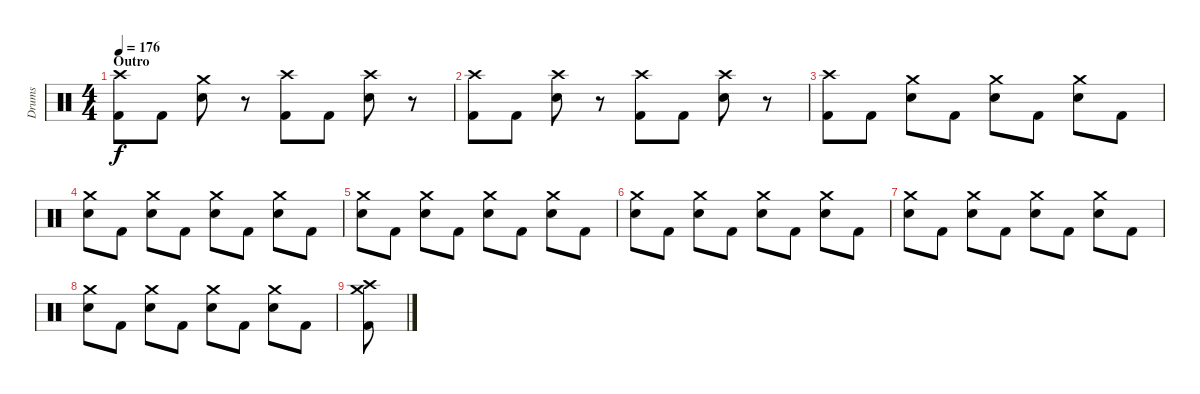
\track ("Drums" "Drums") {instrument percussion}
\staff {score}
\articulation defaults
\ts (4 4)
\section ("" "Outro")
\tempo 176
\clef neutral
\ks c
("Crash high (hit)" "Kick (hit) 2").8{dy f} "Kick (hit) 2".8 ("Crash medium (hit)" "Electric Snare (hit)").8 r.8 ("Crash high (hit)" "Kick (hit) 2").8 "Kick (hit) 2".8 ("Crash high (hit)" "Electric Snare (hit)").8 r.8 |
("Crash high (hit)" "Kick (hit) 2").8 "Kick (hit) 2".8 ("Crash high (hit)" "Electric Snare (hit)").8 r.8 ("Crash high (hit)" "Kick (hit) 2").8 "Kick (hit) 2".8 ("Crash high (hit)" "Electric Snare (hit)").8 r.8 |
("Crash high (hit)" "Kick (hit) 2").8 "Kick (hit) 2".8 ("Crash medium (hit)" "Electric Snare (hit)").8 "Kick (hit) 2".8 ("Crash medium (hit)" "Electric Snare (hit)").8 "Kick (hit) 2".8 ("Crash medium (hit)" "Electric Snare (hit)").8 "Kick (hit) 2".8 |
("Crash medium (hit)" "Electric Snare (hit)").8 "Kick (hit) 2".8 ("Crash medium (hit)" "Electric Snare (hit)").8 "Kick (hit) 2".8 ("Crash medium (hit)" "Electric Snare (hit)").8 "Kick (hit) 2".8 ("Crash medium (hit)" "Electric Snare (hit)").8 "Kick (hit) 2".8 |
("Crash medium (hit)" "Electric Snare (hit)").8 "Kick (hit) 2".8 ("Crash medium (hit)" "Electric Snare (hit)").8 "Kick (hit) 2".8 ("Crash medium (hit)" "Electric Snare (hit)").8 "Kick (hit) 2".8 ("Crash medium (hit)" "Electric Snare (hit)").8 "Kick (hit) 2".8 |
("Crash medium (hit)" "Electric Snare (hit)").8 "Kick (hit) 2".8 ("Crash medium (hit)" "Electric Snare (hit)").8 "Kick (hit) 2".8 ("Crash medium (hit)" "Electric Snare (hit)").8 "Kick (hit) 2".8 ("Crash medium (hit)" "Electric Snare (hit)").8 "Kick (hit) 2".8 |
("Crash medium (hit)" "Electric Snare (hit)").8 "Kick (hit) 2".8 ("Crash medium (hit)" "Electric Snare (hit)").8 "Kick (hit) 2".8 ("Crash medium (hit)" "Electric Snare (hit)").8 "Kick (hit) 2".8 ("Crash medium (hit)" "Electric Snare (hit)").8 "Kick (hit) 2".8 |
("Crash medium (hit)" "Electric Snare (hit)").8 "Kick (hit) 2".8 ("Crash medium (hit)" "Electric Snare (hit)").8 "Kick (hit) 2".8 ("Crash medium (hit)" "Electric Snare (hit)").8 "Kick (hit) 2".8 ("Crash medium (hit)" "Electric Snare (hit)").8 "Kick (hit) 2".8 |
("Crash high (hit)" "Crash medium (hit)" "Kick (hit) 2").8
